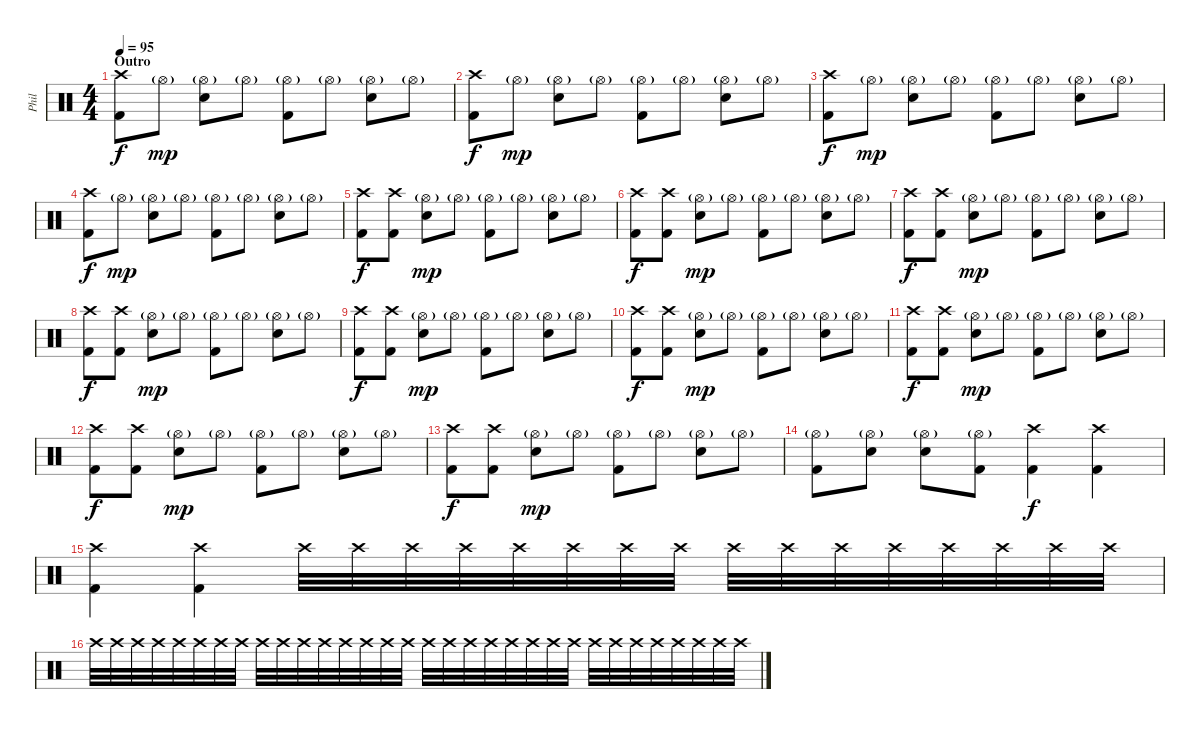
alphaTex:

\track ("Phil" "Phil") {instrument percussion}
\staff {score}
\articulation defaults
\ts (4 4)
\section ("" "Outro")
\tempo 95
\clef neutral
\ks c
("Crash high (hit)" "Kick (hit) 2").8{dy f} "Hi-Hat (open)"{g}.8{dy mp} ("Hi-Hat (open)"{g} "Snare (hit) 2").8 "Hi-Hat (open)"{g}.8 ("Hi-Hat (open)"{g} "Kick (hit) 2").8 "Hi-Hat (open)"{g}.8 ("Hi-Hat (open)"{g} "Snare (hit) 2").8 "Hi-Hat (open)"{g}.8 |
("Crash high (hit)" "Kick (hit) 2").8{dy f} "Hi-Hat (open)"{g}.8{dy mp} ("Hi-Hat (open)"{g} "Snare (hit) 2").8 "Hi-Hat (open)"{g}.8 ("Hi-Hat (open)"{g} "Kick (hit) 2").8 "Hi-Hat (open)"{g}.8 ("Hi-Hat (open)"{g} "Snare (hit) 2").8 "Hi-Hat (open)"{g}.8 |
("Crash high (hit)" "Kick (hit) 2").8{dy f} "Hi-Hat (open)"{g}.8{dy mp} ("Hi-Hat (open)"{g} "Snare (hit) 2").8 "Hi-Hat (open)"{g}.8 ("Hi-Hat (open)"{g} "Kick (hit) 2").8 "Hi-Hat (open)"{g}.8 ("Hi-Hat (open)"{g} "Snare (hit) 2").8 "Hi-Hat (open)"{g}.8 |
("Crash high (hit)" "Kick (hit) 2").8{dy f} "Hi-Hat (open)"{g}.8{dy mp} ("Hi-Hat (open)"{g} "Snare (hit) 2").8 "Hi-Hat (open)"{g}.8 ("Hi-Hat (open)"{g} "Kick (hit) 2").8 "Hi-Hat (open)"{g}.8 ("Hi-Hat (open)"{g} "Snare (hit) 2").8 "Hi-Hat (open)"{g}.8 |
("Crash high (hit)" "Kick (hit) 2").8{dy f} ("Crash high (hit)" "Kick (hit) 2").8 ("Hi-Hat (open)"{g} "Snare (hit) 2").8{dy mp} "Hi-Hat (open)"{g}.8 ("Hi-Hat (open)"{g} "Kick (hit) 2").8 "Hi-Hat (open)"{g}.8 ("Hi-Hat (open)"{g} "Snare (hit) 2").8 "Hi-Hat (open)"{g}.8 |
("Crash high (hit)" "Kick (hit) 2").8{dy f} ("Crash high (hit)" "Kick (hit) 2").8 ("Hi-Hat (open)"{g} "Snare (hit) 2").8{dy mp} "Hi-Hat (open)"{g}.8 ("Hi-Hat (open)"{g} "Kick (hit) 2").8 "Hi-Hat (open)"{g}.8 ("Hi-Hat (open)"{g} "Snare (hit) 2").8 "Hi-Hat (open)"{g}.8 |
("Crash high (hit)" "Kick (hit) 2").8{dy f} ("Crash high (hit)" "Kick (hit) 2").8 ("Hi-Hat (open)"{g} "Snare (hit) 2").8{dy mp} "Hi-Hat (open)"{g}.8 ("Hi-Hat (open)"{g} "Kick (hit) 2").8 "Hi-Hat (open)"{g}.8 ("Hi-Hat (open)"{g} "Snare (hit) 2").8 "Hi-Hat (open)"{g}.8 |
("Crash high (hit)" "Kick (hit) 2").8{dy f} ("Crash high (hit)" "Kick (hit) 2").8 ("Hi-Hat (open)"{g} "Snare (hit) 2").8{dy mp} "Hi-Hat (open)"{g}.8 ("Hi-Hat (open)"{g} "Kick (hit) 2").8 "Hi-Hat (open)"{g}.8 ("Hi-Hat (open)"{g} "Snare (hit) 2").8 "Hi-Hat (open)"{g}.8 |
("Crash high (hit)" "Kick (hit) 2").8{dy f} ("Crash high (hit)" "Kick (hit) 2").8 ("Hi-Hat (open)"{g} "Snare (hit) 2").8{dy mp} "Hi-Hat (open)"{g}.8 ("Hi-Hat (open)"{g} "Kick (hit) 2").8 "Hi-Hat (open)"{g}.8 ("Hi-Hat (open)"{g} "Snare (hit) 2").8 "Hi-Hat (open)"{g}.8 |
("Crash high (hit)" "Kick (hit) 2").8{dy f} ("Crash high (hit)" "Kick (hit) 2").8 ("Hi-Hat (open)"{g} "Snare (hit) 2").8{dy mp} "Hi-Hat (open)"{g}.8 ("Hi-Hat (open)"{g} "Kick (hit) 2").8 "Hi-Hat (open)"{g}.8 ("Hi-Hat (open)"{g} "Snare (hit) 2").8 "Hi-Hat (open)"{g}.8 |
("Crash high (hit)" "Kick (hit) 2").8{dy f} ("Crash high (hit)" "Kick (hit) 2").8 ("Hi-Hat (open)"{g} "Snare (hit) 2").8{dy mp} "Hi-Hat (open)"{g}.8 ("Hi-Hat (open)"{g} "Kick (hit) 2").8 "Hi-Hat (open)"{g}.8 ("Hi-Hat (open)"{g} "Snare (hit) 2").8 "Hi-Hat (open)"{g}.8 |
("Crash high (hit)" "Kick (hit) 2").8{dy f} ("Crash high (hit)" "Kick (hit) 2").8 ("Hi-Hat (open)"{g} "Snare (hit) 2").8{dy mp} "Hi-Hat (open)"{g}.8 ("Hi-Hat (open)"{g} "Kick (hit) 2").8 "Hi-Hat (open)"{g}.8 ("Hi-Hat (open)"{g} "Snare (hit) 2").8 "Hi-Hat (open)"{g}.8 |
("Crash high (hit)" "Kick (hit) 2").8{dy f} ("Crash high (hit)" "Kick (hit) 2").8 ("Hi-Hat (open)"{g} "Snare (hit) 2").8{dy mp} "Hi-Hat (open)"{g}.8 ("Hi-Hat (open)"{g} "Kick (hit) 2").8 "Hi-Hat (open)"{g}.8 ("Hi-Hat (open)"{g} "Snare (hit) 2").8 "Hi-Hat (open)"{g}.8 |
("Hi-Hat (open)"{g} "Kick (hit) 2").8 ("Hi-Hat (open)"{g} "Snare (hit) 2").8 ("Hi-Hat (open)"{g} "Snare (hit) 2").8 ("Hi-Hat (open)"{g} "Kick (hit) 2").8 ("Crash high (hit)" "Kick (hit) 2").4{dy f} ("Crash high (hit)" "Kick (hit) 2").4 |
("Crash high (hit)" "Kick (hit) 2").4 ("Crash high (hit)" "Kick (hit) 2").4 "Crash high (hit)".32{volume 5} "Crash high (hit)".32{volume 13} "Crash high (hit)".32 "Crash high (hit)".32 "Crash high (hit)".32 "Crash high (hit)".32 "Crash high (hit)".32 "Crash high (hit)".32 "Crash high (hit)".32 "Crash high (hit)".32 "Crash high (hit)".32 "Crash high (hit)".32 "Crash high (hit)".32 "Crash high (hit)".32 "Crash high (hit)".32 "Crash high (hit)".32 |
"Crash high (hit)".32 "Crash high (hit)".32 "Crash high (hit)".32 "Crash high (hit)".32 "Crash high (hit)".32 "Crash high (hit)".32 "Crash high (hit)".32 "Crash high (hit)".32 "Crash high (hit)".32 "Crash high (hit)".32 "Crash high (hit)".32 "Crash high (hit)".32 "Crash high (hit)".32 "Crash high (hit)".32 "Crash high (hit)".32 "Crash high (hit)".32 "Crash high (hit)".32 "Crash high (hit)".32 "Crash high (hit)".32 "Crash high (hit)".32 "Crash high (hit)".32 "Crash high (hit)".32 "Crash high (hit)".32 "Crash high (hit)".32 "Crash high (hit)".32 "Crash high (hit)".32 "Crash high (hit)".32 "Crash high (hit)".32 "Crash high (hit)".32 "Crash high (hit)".32 "Crash high (hit)".32 "Crash high (hit)".32
